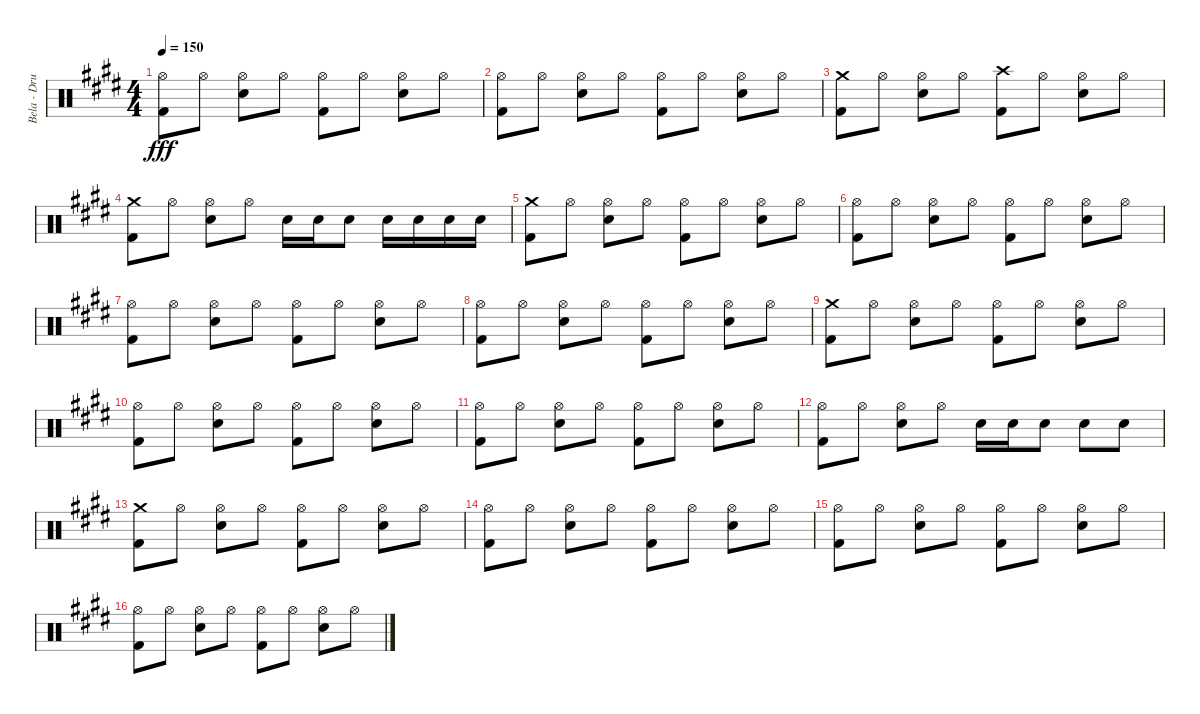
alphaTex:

\track ("Bela - Drums" "Bela - Dru") {instrument percussion}
\staff {score}
\articulation defaults
\ts (4 4)
\tempo 150
\clef neutral
\ks e
("Hi-Hat (open)" "Kick (hit) 2").8{dy fff} "Hi-Hat (open)".8 ("Hi-Hat (open)" "Electric Snare (hit)").8 "Hi-Hat (open)".8 ("Hi-Hat (open)" "Kick (hit) 2").8 "Hi-Hat (open)".8 ("Hi-Hat (open)" "Electric Snare (hit)").8 "Hi-Hat (open)".8 |
("Hi-Hat (open)" "Kick (hit) 2").8 "Hi-Hat (open)".8 ("Hi-Hat (open)" "Electric Snare (hit)").8 "Hi-Hat (open)".8 ("Hi-Hat (open)" "Kick (hit) 2").8 "Hi-Hat (open)".8 ("Hi-Hat (open)" "Electric Snare (hit)").8 "Hi-Hat (open)".8 |
("Crash medium (hit)" "Kick (hit) 2").8 "Hi-Hat (open)".8 ("Hi-Hat (open)" "Electric Snare (hit)").8 "Hi-Hat (open)".8 ("Crash high (hit)" "Kick (hit) 2").8 "Hi-Hat (open)".8 ("Hi-Hat (open)" "Electric Snare (hit)").8 "Hi-Hat (open)".8 |
("Crash medium (hit)" "Kick (hit) 2").8 "Hi-Hat (open)".8 ("Hi-Hat (open)" "Electric Snare (hit)").8 "Hi-Hat (open)".8 "Electric Snare (hit)".16 "Electric Snare (hit)".16 "Electric Snare (hit)".8 "Electric Snare (hit)".16 "Electric Snare (hit)".16 "Electric Snare (hit)".16 "Electric Snare (hit)".16 |
("Crash medium (hit)" "Kick (hit) 2").8 "Hi-Hat (open)".8 ("Hi-Hat (open)" "Electric Snare (hit)").8 "Hi-Hat (open)".8 ("Hi-Hat (open)" "Kick (hit) 2").8 "Hi-Hat (open)".8 ("Hi-Hat (open)" "Electric Snare (hit)").8 "Hi-Hat (open)".8 |
("Hi-Hat (open)" "Kick (hit) 2").8 "Hi-Hat (open)".8 ("Hi-Hat (open)" "Electric Snare (hit)").8 "Hi-Hat (open)".8 ("Hi-Hat (open)" "Kick (hit) 2").8 "Hi-Hat (open)".8 ("Hi-Hat (open)" "Electric Snare (hit)").8 "Hi-Hat (open)".8 |
("Hi-Hat (open)" "Kick (hit) 2").8 "Hi-Hat (open)".8 ("Hi-Hat (open)" "Electric Snare (hit)").8 "Hi-Hat (open)".8 ("Hi-Hat (open)" "Kick (hit) 2").8 "Hi-Hat (open)".8 ("Hi-Hat (open)" "Electric Snare (hit)").8 "Hi-Hat (open)".8 |
("Hi-Hat (open)" "Kick (hit) 2").8 "Hi-Hat (open)".8 ("Hi-Hat (open)" "Electric Snare (hit)").8 "Hi-Hat (open)".8 ("Hi-Hat (open)" "Kick (hit) 2").8 "Hi-Hat (open)".8 ("Hi-Hat (open)" "Electric Snare (hit)").8 "Hi-Hat (open)".8 |
("Crash medium (hit)" "Kick (hit) 2").8 "Hi-Hat (open)".8 ("Hi-Hat (open)" "Electric Snare (hit)").8 "Hi-Hat (open)".8 ("Hi-Hat (open)" "Kick (hit) 2").8 "Hi-Hat (open)".8 ("Hi-Hat (open)" "Electric Snare (hit)").8 "Hi-Hat (open)".8 |
("Hi-Hat (open)" "Kick (hit) 2").8 "Hi-Hat (open)".8 ("Hi-Hat (open)" "Electric Snare (hit)").8 "Hi-Hat (open)".8 ("Hi-Hat (open)" "Kick (hit) 2").8 "Hi-Hat (open)".8 ("Hi-Hat (open)" "Electric Snare (hit)").8 "Hi-Hat (open)".8 |
("Hi-Hat (open)" "Kick (hit) 2").8 "Hi-Hat (open)".8 ("Hi-Hat (open)" "Electric Snare (hit)").8 "Hi-Hat (open)".8 ("Hi-Hat (open)" "Kick (hit) 2").8 "Hi-Hat (open)".8 ("Hi-Hat (open)" "Electric Snare (hit)").8 "Hi-Hat (open)".8 |
("Hi-Hat (open)" "Kick (hit) 2").8 "Hi-Hat (open)".8 ("Hi-Hat (open)" "Electric Snare (hit)").8 "Hi-Hat (open)".8 "Electric Snare (hit)".16 "Electric Snare (hit)".16 "Electric Snare (hit)".8 "Electric Snare (hit)".8 "Electric Snare (hit)".8 |
("Crash medium (hit)" "Kick (hit) 2").8 "Hi-Hat (open)".8 ("Hi-Hat (open)" "Electric Snare (hit)").8 "Hi-Hat (open)".8 ("Hi-Hat (open)" "Kick (hit) 2").8 "Hi-Hat (open)".8 ("Hi-Hat (open)" "Electric Snare (hit)").8 "Hi-Hat (open)".8 |
("Hi-Hat (open)" "Kick (hit) 2").8 "Hi-Hat (open)".8 ("Hi-Hat (open)" "Electric Snare (hit)").8 "Hi-Hat (open)".8 ("Hi-Hat (open)" "Kick (hit) 2").8 "Hi-Hat (open)".8 ("Hi-Hat (open)" "Electric Snare (hit)").8 "Hi-Hat (open)".8 |
("Hi-Hat (open)" "Kick (hit) 2").8 "Hi-Hat (open)".8 ("Hi-Hat (open)" "Electric Snare (hit)").8 "Hi-Hat (open)".8 ("Hi-Hat (open)" "Kick (hit) 2").8 "Hi-Hat (open)".8 ("Hi-Hat (open)" "Electric Snare (hit)").8 "Hi-Hat (open)".8 |
("Hi-Hat (open)" "Kick (hit) 2").8 "Hi-Hat (open)".8 ("Hi-Hat (open)" "Electric Snare (hit)").8 "Hi-Hat (open)".8 ("Hi-Hat (open)" "Kick (hit) 2").8 "Hi-Hat (open)".8 ("Hi-Hat (open)" "Electric Snare (hit)").8 "Hi-Hat (open)".8
